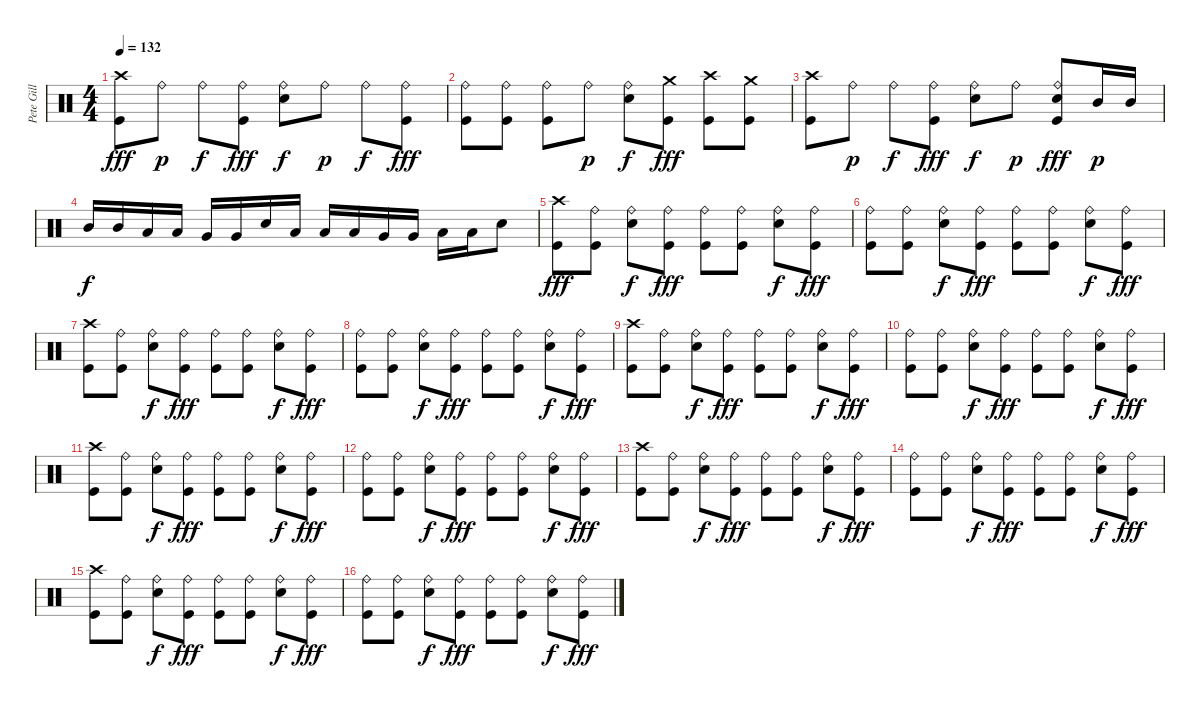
\track ("Pete Gill" "Pete Gill") {instrument percussion}
\staff {score}
\articulation defaults
\ts (4 4)
\tempo 132
\clef neutral
\ks c
("Crash high (hit)" "Kick (hit)").8{dy fff} "Ride (bell)".8{dy p} "Ride (bell)".8{dy f} ("Ride (bell)" "Kick (hit)").8{dy fff} ("Ride (bell)" "Electric Snare (hit)").8{dy f} "Ride (bell)".8{dy p} "Ride (bell)".8{dy f} ("Ride (bell)" "Kick (hit)").8{dy fff} |
("Ride (bell)" "Kick (hit)").8 ("Ride (bell)" "Kick (hit)").8 ("Ride (bell)" "Kick (hit)").8 "Ride (bell)".8{dy p} ("Ride (bell)" "Electric Snare (hit)").8{dy f} ("Crash medium (hit)" "Kick (hit)").8{dy fff} ("Crash high (hit)" "Kick (hit)").8 ("Crash medium (hit)" "Kick (hit)").8 |
("Crash high (hit)" "Kick (hit)").8 "Ride (bell)".8{dy p} "Ride (bell)".8{dy f} ("Ride (bell)" "Kick (hit)").8{dy fff} ("Ride (bell)" "Electric Snare (hit)").8{dy f} "Ride (bell)".8{dy p} ("Ride (bell)" "Electric Snare (hit)" "Kick (hit)").8{dy fff} "Mid Tom (hit)".16{dy p} "Mid Tom (hit)".16 |
"Mid Tom (hit)".16{dy f} "Mid Tom (hit)".16 "Low Tom (hit)".16 "Low Tom (hit)".16 "Very Low Tom (hit)".16 "Very Low Tom (hit)".16 "Electric Snare (hit)".16 "Low Tom (hit)".16 "Low Tom (hit)".16 "Low Tom (hit)".16 "Very Low Tom (hit)".16 "Very Low Tom (hit)".16 "Low Floor Tom (hit)".16 "Low Floor Tom (hit)".16 "Electric Snare (hit)".8 |
("Crash high (hit)" "Kick (hit)").8{dy fff} ("Ride (bell)" "Kick (hit)").8 ("Ride (bell)" "Electric Snare (hit)").8{dy f} ("Ride (bell)" "Kick (hit)").8{dy fff} ("Ride (bell)" "Kick (hit)").8 ("Ride (bell)" "Kick (hit)").8 ("Ride (bell)" "Electric Snare (hit)").8{dy f} ("Ride (bell)" "Kick (hit)").8{dy fff} |
("Ride (bell)" "Kick (hit)").8 ("Ride (bell)" "Kick (hit)").8 ("Ride (bell)" "Electric Snare (hit)").8{dy f} ("Ride (bell)" "Kick (hit)").8{dy fff} ("Ride (bell)" "Kick (hit)").8 ("Ride (bell)" "Kick (hit)").8 ("Ride (bell)" "Electric Snare (hit)").8{dy f} ("Ride (bell)" "Kick (hit)").8{dy fff} |
("Crash high (hit)" "Kick (hit)").8 ("Ride (bell)" "Kick (hit)").8 ("Ride (bell)" "Electric Snare (hit)").8{dy f} ("Ride (bell)" "Kick (hit)").8{dy fff} ("Ride (bell)" "Kick (hit)").8 ("Ride (bell)" "Kick (hit)").8 ("Ride (bell)" "Electric Snare (hit)").8{dy f} ("Ride (bell)" "Kick (hit)").8{dy fff} |
("Ride (bell)" "Kick (hit)").8 ("Ride (bell)" "Kick (hit)").8 ("Ride (bell)" "Electric Snare (hit)").8{dy f} ("Ride (bell)" "Kick (hit)").8{dy fff} ("Ride (bell)" "Kick (hit)").8 ("Ride (bell)" "Kick (hit)").8 ("Ride (bell)" "Electric Snare (hit)").8{dy f} ("Ride (bell)" "Kick (hit)").8{dy fff} |
("Crash high (hit)" "Kick (hit)").8 ("Ride (bell)" "Kick (hit)").8 ("Ride (bell)" "Electric Snare (hit)").8{dy f} ("Ride (bell)" "Kick (hit)").8{dy fff} ("Ride (bell)" "Kick (hit)").8 ("Ride (bell)" "Kick (hit)").8 ("Ride (bell)" "Electric Snare (hit)").8{dy f} ("Ride (bell)" "Kick (hit)").8{dy fff} |
("Ride (bell)" "Kick (hit)").8 ("Ride (bell)" "Kick (hit)").8 ("Ride (bell)" "Electric Snare (hit)").8{dy f} ("Ride (bell)" "Kick (hit)").8{dy fff} ("Ride (bell)" "Kick (hit)").8 ("Ride (bell)" "Kick (hit)").8 ("Ride (bell)" "Electric Snare (hit)").8{dy f} ("Ride (bell)" "Kick (hit)").8{dy fff} |
("Crash high (hit)" "Kick (hit)").8 ("Ride (bell)" "Kick (hit)").8 ("Ride (bell)" "Electric Snare (hit)").8{dy f} ("Ride (bell)" "Kick (hit)").8{dy fff} ("Ride (bell)" "Kick (hit)").8 ("Ride (bell)" "Kick (hit)").8 ("Ride (bell)" "Electric Snare (hit)").8{dy f} ("Ride (bell)" "Kick (hit)").8{dy fff} |
("Ride (bell)" "Kick (hit)").8 ("Ride (bell)" "Kick (hit)").8 ("Ride (bell)" "Electric Snare (hit)").8{dy f} ("Ride (bell)" "Kick (hit)").8{dy fff} ("Ride (bell)" "Kick (hit)").8 ("Ride (bell)" "Kick (hit)").8 ("Ride (bell)" "Electric Snare (hit)").8{dy f} ("Ride (bell)" "Kick (hit)").8{dy fff} |
("Crash high (hit)" "Kick (hit)").8 ("Ride (bell)" "Kick (hit)").8 ("Ride (bell)" "Electric Snare (hit)").8{dy f} ("Ride (bell)" "Kick (hit)").8{dy fff} ("Ride (bell)" "Kick (hit)").8 ("Ride (bell)" "Kick (hit)").8 ("Ride (bell)" "Electric Snare (hit)").8{dy f} ("Ride (bell)" "Kick (hit)").8{dy fff} |
("Ride (bell)" "Kick (hit)").8 ("Ride (bell)" "Kick (hit)").8 ("Ride (bell)" "Electric Snare (hit)").8{dy f} ("Ride (bell)" "Kick (hit)").8{dy fff} ("Ride (bell)" "Kick (hit)").8 ("Ride (bell)" "Kick (hit)").8 ("Ride (bell)" "Electric Snare (hit)").8{dy f} ("Ride (bell)" "Kick (hit)").8{dy fff} |
("Crash high (hit)" "Kick (hit)").8 ("Ride (bell)" "Kick (hit)").8 ("Ride (bell)" "Electric Snare (hit)").8{dy f} ("Ride (bell)" "Kick (hit)").8{dy fff} ("Ride (bell)" "Kick (hit)").8 ("Ride (bell)" "Kick (hit)").8 ("Ride (bell)" "Electric Snare (hit)").8{dy f} ("Ride (bell)" "Kick (hit)").8{dy fff} |
("Ride (bell)" "Kick (hit)").8 ("Ride (bell)" "Kick (hit)").8 ("Ride (bell)" "Electric Snare (hit)").8{dy f} ("Ride (bell)" "Kick (hit)").8{dy fff} ("Ride (bell)" "Kick (hit)").8 ("Ride (bell)" "Kick (hit)").8 ("Ride (bell)" "Electric Snare (hit)").8{dy f} ("Ride (bell)" "Kick (hit)").8{dy fff}
